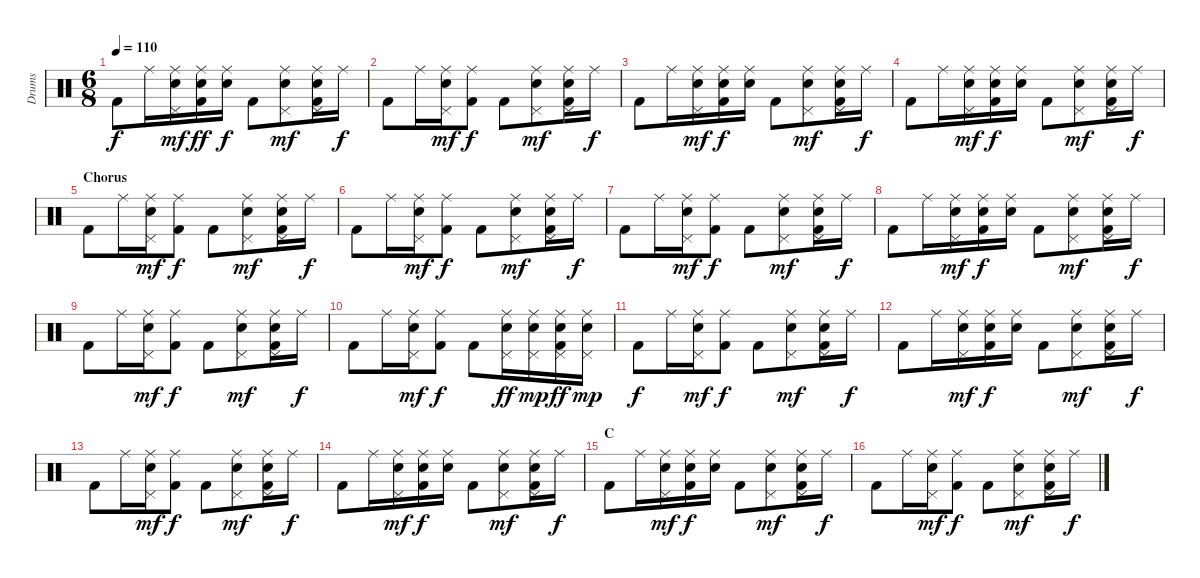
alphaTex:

\track ("Drums" "Drums") {instrument percussion}
\staff {score}
\articulation defaults
\ts (6 8)
\tempo 110
\clef neutral
\ks c "Kick (hit) 2".8{dy f} "Ride (middle)".16
("Ride (middle)" "Pedal Hi-Hat (hit)" "Electric Snare (hit)").16{dy mf} ("Ride (middle)" "Electric Snare (hit)" "Kick (hit) 2").16{dy ff} ("Ride (middle)" "Electric Snare (hit)").16{dy f} "Kick (hit) 2".8 ("Ride (middle)" "Pedal Hi-Hat (hit)" "Electric Snare (hit)").8{dy mf} ("Ride (middle)" "Pedal Hi-Hat (hit)" "Electric Snare (hit)" "Kick (hit) 2").16 "Ride (middle)".16{dy f} |
"Kick (hit) 2".8 "Ride (middle)".16 ("Ride (middle)" "Pedal Hi-Hat (hit)" "Electric Snare (hit)").16{dy mf} ("Ride (middle)" "Kick (hit) 2").8{dy f} "Kick (hit) 2".8 ("Ride (middle)" "Pedal Hi-Hat (hit)" "Electric Snare (hit)").8{dy mf} ("Ride (middle)" "Pedal Hi-Hat (hit)" "Electric Snare (hit)" "Kick (hit) 2").16 "Ride (middle)".16{dy f} |
"Kick (hit) 2".8 "Ride (middle)".16 ("Ride (middle)" "Pedal Hi-Hat (hit)" "Electric Snare (hit)").16{dy mf} ("Ride (middle)" "Electric Snare (hit)" "Kick (hit) 2").16{dy f} ("Ride (middle)" "Electric Snare (hit)").16 "Kick (hit) 2".8 ("Ride (middle)" "Pedal Hi-Hat (hit)" "Electric Snare (hit)").8{dy mf} ("Ride (middle)" "Pedal Hi-Hat (hit)" "Electric Snare (hit)" "Kick (hit) 2").16 "Ride (middle)".16{dy f} |
"Kick (hit) 2".8 "Ride (middle)".16 ("Ride (middle)" "Pedal Hi-Hat (hit)" "Electric Snare (hit)").16{dy mf} ("Ride (middle)" "Electric Snare (hit)" "Kick (hit) 2").16{dy f} ("Ride (middle)" "Electric Snare (hit)").16 "Kick (hit) 2".8 ("Ride (middle)" "Pedal Hi-Hat (hit)" "Electric Snare (hit)").8{dy mf} ("Ride (middle)" "Pedal Hi-Hat (hit)" "Electric Snare (hit)" "Kick (hit) 2").16 "Ride (middle)".16{dy f} |
\section ("" "Chorus")
"Kick (hit) 2".8 "Ride (middle)".16 ("Ride (middle)" "Pedal Hi-Hat (hit)" "Electric Snare (hit)").16{dy mf} ("Ride (middle)" "Kick (hit) 2").8{dy f} "Kick (hit) 2".8 ("Ride (middle)" "Pedal Hi-Hat (hit)" "Electric Snare (hit)").8{dy mf} ("Ride (middle)" "Pedal Hi-Hat (hit)" "Electric Snare (hit)" "Kick (hit) 2").16 "Ride (middle)".16{dy f} |
"Kick (hit) 2".8 "Ride (middle)".16 ("Ride (middle)" "Pedal Hi-Hat (hit)" "Electric Snare (hit)").16{dy mf} ("Ride (middle)" "Kick (hit) 2").8{dy f} "Kick (hit) 2".8 ("Ride (middle)" "Pedal Hi-Hat (hit)" "Electric Snare (hit)").8{dy mf} ("Ride (middle)" "Pedal Hi-Hat (hit)" "Electric Snare (hit)" "Kick (hit) 2").16 "Ride (middle)".16{dy f} |
"Kick (hit) 2".8 "Ride (middle)".16 ("Ride (middle)" "Pedal Hi-Hat (hit)" "Electric Snare (hit)").16{dy mf} ("Ride (middle)" "Kick (hit) 2").8{dy f} "Kick (hit) 2".8 ("Ride (middle)" "Pedal Hi-Hat (hit)" "Electric Snare (hit)").8{dy mf} ("Ride (middle)" "Pedal Hi-Hat (hit)" "Electric Snare (hit)" "Kick (hit) 2").16 "Ride (middle)".16{dy f} |
"Kick (hit) 2".8 "Ride (middle)".16 ("Ride (middle)" "Pedal Hi-Hat (hit)" "Electric Snare (hit)").16{dy mf} ("Ride (middle)" "Electric Snare (hit)" "Kick (hit) 2").16{dy f} ("Ride (middle)" "Electric Snare (hit)").16 "Kick (hit) 2".8 ("Ride (middle)" "Pedal Hi-Hat (hit)" "Electric Snare (hit)").8{dy mf} ("Ride (middle)" "Pedal Hi-Hat (hit)" "Electric Snare (hit)" "Kick (hit) 2").16 "Ride (middle)".16{dy f} |
"Kick (hit) 2".8 "Ride (middle)".16 ("Ride (middle)" "Pedal Hi-Hat (hit)" "Electric Snare (hit)").16{dy mf} ("Ride (middle)" "Kick (hit) 2").8{dy f} "Kick (hit) 2".8 ("Ride (middle)" "Pedal Hi-Hat (hit)" "Electric Snare (hit)").8{dy mf} ("Ride (middle)" "Pedal Hi-Hat (hit)" "Electric Snare (hit)" "Kick (hit) 2").16 "Ride (middle)".16{dy f} |
"Kick (hit) 2".8 "Ride (middle)".16 ("Ride (middle)" "Pedal Hi-Hat (hit)" "Electric Snare (hit)").16{dy mf} ("Ride (middle)" "Kick (hit) 2").8{dy f} "Kick (hit) 2".8 ("Ride (middle)" "Pedal Hi-Hat (hit)" "Electric Snare (hit)").16{dy ff} ("Ride (middle)" "Pedal Hi-Hat (hit)" "Electric Snare (hit)").16{dy mp} ("Ride (middle)" "Pedal Hi-Hat (hit)" "Electric Snare (hit)" "Kick (hit) 2").16{dy ff} ("Ride (middle)" "Pedal Hi-Hat (hit)" "Electric Snare (hit)").16{dy mp} |
"Kick (hit) 2".8{dy f} "Ride (middle)".16 ("Ride (middle)" "Pedal Hi-Hat (hit)" "Electric Snare (hit)").16{dy mf} ("Ride (middle)" "Kick (hit) 2").8{dy f} "Kick (hit) 2".8 ("Ride (middle)" "Pedal Hi-Hat (hit)" "Electric Snare (hit)").8{dy mf} ("Ride (middle)" "Pedal Hi-Hat (hit)" "Electric Snare (hit)" "Kick (hit) 2").16 "Ride (middle)".16{dy f} |
"Kick (hit) 2".8 "Ride (middle)".16 ("Ride (middle)" "Pedal Hi-Hat (hit)" "Electric Snare (hit)").16{dy mf} ("Ride (middle)" "Electric Snare (hit)" "Kick (hit) 2").16{dy f} ("Ride (middle)" "Electric Snare (hit)").16 "Kick (hit) 2".8 ("Ride (middle)" "Pedal Hi-Hat (hit)" "Electric Snare (hit)").8{dy mf} ("Ride (middle)" "Pedal Hi-Hat (hit)" "Electric Snare (hit)" "Kick (hit) 2").16 "Ride (middle)".16{dy f} |
"Kick (hit) 2".8 "Ride (middle)".16 ("Ride (middle)" "Pedal Hi-Hat (hit)" "Electric Snare (hit)").16{dy mf} ("Ride (middle)" "Kick (hit) 2").8{dy f} "Kick (hit) 2".8 ("Ride (middle)" "Pedal Hi-Hat (hit)" "Electric Snare (hit)").8{dy mf} ("Ride (middle)" "Pedal Hi-Hat (hit)" "Electric Snare (hit)" "Kick (hit) 2").16 "Ride (middle)".16{dy f} |
"Kick (hit) 2".8 "Ride (middle)".16 ("Ride (middle)" "Pedal Hi-Hat (hit)" "Electric Snare (hit)").16{dy mf} ("Ride (middle)" "Electric Snare (hit)" "Kick (hit) 2").16{dy f} ("Ride (middle)" "Electric Snare (hit)").16 "Kick (hit) 2".8 ("Ride (middle)" "Pedal Hi-Hat (hit)" "Electric Snare (hit)").8{dy mf} ("Ride (middle)" "Pedal Hi-Hat (hit)" "Electric Snare (hit)" "Kick (hit) 2").16 "Ride (middle)".16{dy f} |
\section ("" "C")
"Kick (hit) 2".8 "Ride (middle)".16 ("Ride (middle)" "Pedal Hi-Hat (hit)" "Electric Snare (hit)").16{dy mf} ("Ride (middle)" "Electric Snare (hit)" "Kick (hit) 2").16{dy f} ("Ride (middle)" "Electric Snare (hit)").16 "Kick (hit) 2".8 ("Ride (middle)" "Pedal Hi-Hat (hit)" "Electric Snare (hit)").8{dy mf} ("Ride (middle)" "Pedal Hi-Hat (hit)" "Electric Snare (hit)" "Kick (hit) 2").16 "Ride (middle)".16{dy f} |
"Kick (hit) 2".8 "Ride (middle)".16 ("Ride (middle)" "Pedal Hi-Hat (hit)" "Electric Snare (hit)").16{dy mf} ("Ride (middle)" "Kick (hit) 2").8{dy f} "Kick (hit) 2".8 ("Ride (middle)" "Pedal Hi-Hat (hit)" "Electric Snare (hit)").8{dy mf} ("Ride (middle)" "Pedal Hi-Hat (hit)" "Electric Snare (hit)" "Kick (hit) 2").16 "Ride (middle)".16{dy f}
